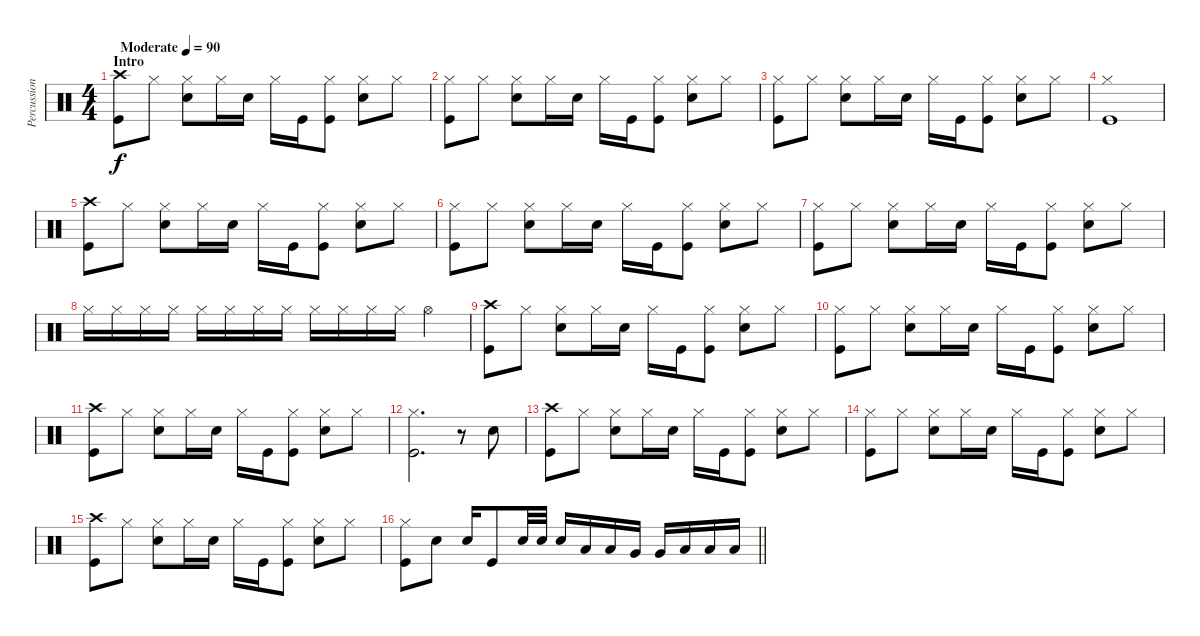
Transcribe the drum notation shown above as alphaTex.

\track ("Percussion" "Percussion") {instrument percussion}
\staff {score}
\articulation defaults
\ts (4 4)
\section ("" "Intro")
\tempo (90 "Moderate")
\clef neutral
\ks c
("Crash high (hit)" "Kick (hit)").8{dy f} "Hi-Hat (closed)".8 ("Hi-Hat (closed)" "Electric Snare (hit)").8 "Hi-Hat (closed)".16 "Electric Snare (hit)".16 "Hi-Hat (closed)".16 "Kick (hit)".16 ("Hi-Hat (closed)" "Kick (hit)").8 ("Hi-Hat (closed)" "Electric Snare (hit)").8 "Hi-Hat (closed)".8 |
("Hi-Hat (closed)" "Kick (hit)").8 "Hi-Hat (closed)".8 ("Hi-Hat (closed)" "Electric Snare (hit)").8 "Hi-Hat (closed)".16 "Electric Snare (hit)".16 "Hi-Hat (closed)".16 "Kick (hit)".16 ("Hi-Hat (closed)" "Kick (hit)").8 ("Hi-Hat (closed)" "Electric Snare (hit)").8 "Hi-Hat (closed)".8 |
("Hi-Hat (closed)" "Kick (hit)").8 "Hi-Hat (closed)".8 ("Hi-Hat (closed)" "Electric Snare (hit)").8 "Hi-Hat (closed)".16 "Electric Snare (hit)".16 "Hi-Hat (closed)".16 "Kick (hit)".16 ("Hi-Hat (closed)" "Kick (hit)").8 ("Hi-Hat (closed)" "Electric Snare (hit)").8 "Hi-Hat (closed)".8 |
("Hi-Hat (closed)" "Kick (hit)").1 |
("Crash high (hit)" "Kick (hit)").8 "Hi-Hat (closed)".8 ("Hi-Hat (closed)" "Electric Snare (hit)").8 "Hi-Hat (closed)".16 "Electric Snare (hit)".16 "Hi-Hat (closed)".16 "Kick (hit)".16 ("Hi-Hat (closed)" "Kick (hit)").8 ("Hi-Hat (closed)" "Electric Snare (hit)").8 "Hi-Hat (closed)".8 |
("Hi-Hat (closed)" "Kick (hit)").8 "Hi-Hat (closed)".8 ("Hi-Hat (closed)" "Electric Snare (hit)").8 "Hi-Hat (closed)".16 "Electric Snare (hit)".16 "Hi-Hat (closed)".16 "Kick (hit)".16 ("Hi-Hat (closed)" "Kick (hit)").8 ("Hi-Hat (closed)" "Electric Snare (hit)").8 "Hi-Hat (closed)".8 |
("Hi-Hat (closed)" "Kick (hit)").8 "Hi-Hat (closed)".8 ("Hi-Hat (closed)" "Electric Snare (hit)").8 "Hi-Hat (closed)".16 "Electric Snare (hit)".16 "Hi-Hat (closed)".16 "Kick (hit)".16 ("Hi-Hat (closed)" "Kick (hit)").8 ("Hi-Hat (closed)" "Electric Snare (hit)").8 "Hi-Hat (closed)".8 |
"Hi-Hat (closed)".16 "Hi-Hat (closed)".16 "Hi-Hat (closed)".16 "Hi-Hat (closed)".16 "Hi-Hat (closed)".16 "Hi-Hat (closed)".16 "Hi-Hat (closed)".16 "Hi-Hat (closed)".16 "Hi-Hat (closed)".16 "Hi-Hat (closed)".16 "Hi-Hat (closed)".16 "Hi-Hat (closed)".16 "Hi-Hat (open)".4 |
("Crash high (hit)" "Kick (hit)").8 "Hi-Hat (closed)".8 ("Hi-Hat (closed)" "Electric Snare (hit)").8 "Hi-Hat (closed)".16 "Electric Snare (hit)".16 "Hi-Hat (closed)".16 "Kick (hit)".16 ("Hi-Hat (closed)" "Kick (hit)").8 ("Hi-Hat (closed)" "Electric Snare (hit)").8 "Hi-Hat (closed)".8 |
("Hi-Hat (closed)" "Kick (hit)").8 "Hi-Hat (closed)".8 ("Hi-Hat (closed)" "Electric Snare (hit)").8 "Hi-Hat (closed)".16 "Electric Snare (hit)".16 "Hi-Hat (closed)".16 "Kick (hit)".16 ("Hi-Hat (closed)" "Kick (hit)").8 ("Hi-Hat (closed)" "Electric Snare (hit)").8 "Hi-Hat (closed)".8 |
("Crash high (hit)" "Kick (hit)").8 "Hi-Hat (closed)".8 ("Hi-Hat (closed)" "Electric Snare (hit)").8 "Hi-Hat (closed)".16 "Electric Snare (hit)".16 "Hi-Hat (closed)".16 "Kick (hit)".16 ("Hi-Hat (closed)" "Kick (hit)").8 ("Hi-Hat (closed)" "Electric Snare (hit)").8 "Hi-Hat (closed)".8 |
("Hi-Hat (closed)" "Kick (hit)").2{d} r.8 "Electric Snare (hit)".8 |
("Crash high (hit)" "Kick (hit)").8 "Hi-Hat (closed)".8 ("Hi-Hat (closed)" "Electric Snare (hit)").8 "Hi-Hat (closed)".16 "Electric Snare (hit)".16 "Hi-Hat (closed)".16 "Kick (hit)".16 ("Hi-Hat (closed)" "Kick (hit)").8 ("Hi-Hat (closed)" "Electric Snare (hit)").8 "Hi-Hat (closed)".8 |
("Hi-Hat (closed)" "Kick (hit)").8 "Hi-Hat (closed)".8 ("Hi-Hat (closed)" "Electric Snare (hit)").8 "Hi-Hat (closed)".16 "Electric Snare (hit)".16 "Hi-Hat (closed)".16 "Kick (hit)".16 ("Hi-Hat (closed)" "Kick (hit)").8 ("Hi-Hat (closed)" "Electric Snare (hit)").8 "Hi-Hat (closed)".8 |
("Crash high (hit)" "Kick (hit)").8 "Hi-Hat (closed)".8 ("Hi-Hat (closed)" "Electric Snare (hit)").8 "Hi-Hat (closed)".16 "Electric Snare (hit)".16 "Hi-Hat (closed)".16 "Kick (hit)".16 ("Hi-Hat (closed)" "Kick (hit)").8 ("Hi-Hat (closed)" "Electric Snare (hit)").8 "Hi-Hat (closed)".8 |
\barLineRight lightlight
("Hi-Hat (closed)" "Kick (hit)").8 "Electric Snare (hit)".8 "Electric Snare (hit)".16 "Kick (hit)".8 "Electric Snare (hit)".32 "Electric Snare (hit)".32 "Electric Snare (hit)".16 "Low Tom (hit)".16 "Low Tom (hit)".16 "Very Low Tom (hit)".16 "Very Low Tom (hit)".16 "Low Floor Tom (hit)".16 "Low Floor Tom (hit)".16 "Low Floor Tom (hit)".16
